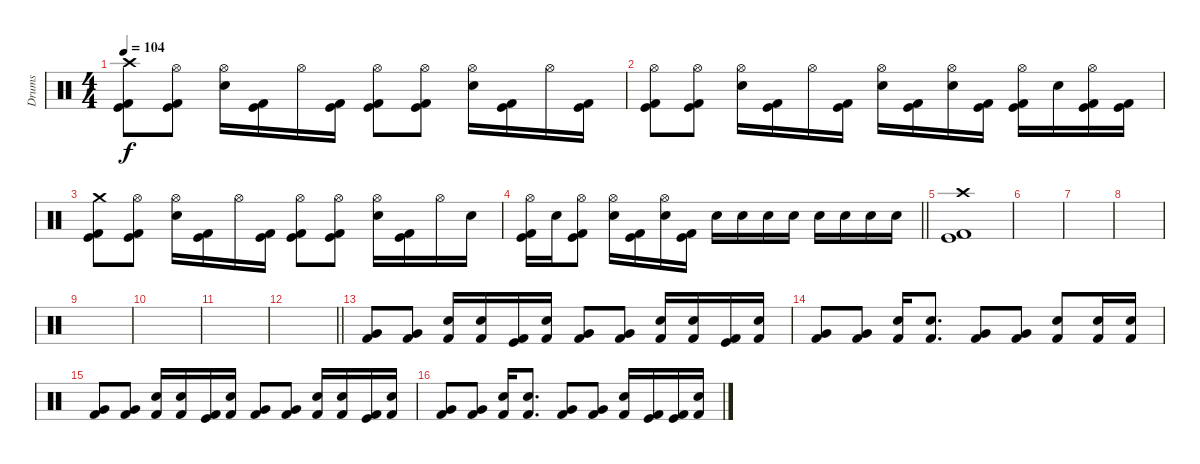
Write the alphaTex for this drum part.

\track ("Drums" "Drums") {instrument percussion}
\staff {score}
\articulation defaults
\ts (4 4)
\tempo 104
\clef neutral
\ks c
("Crash high (hit)" "Kick (hit)" "Kick (hit) 2").8{dy f} ("Hi-Hat (open)" "Kick (hit)" "Kick (hit) 2").8 ("Hi-Hat (open)" "Electric Snare (hit)").16 ("Kick (hit)" "Kick (hit) 2").16 "Hi-Hat (open)".16 ("Kick (hit)" "Kick (hit) 2").16 ("Hi-Hat (open)" "Kick (hit)" "Kick (hit) 2").8 ("Hi-Hat (open)" "Kick (hit)" "Kick (hit) 2").8 ("Hi-Hat (open)" "Electric Snare (hit)").16 ("Kick (hit)" "Kick (hit) 2").16 "Hi-Hat (open)".16 ("Kick (hit)" "Kick (hit) 2").16 |
("Hi-Hat (open)" "Kick (hit)" "Kick (hit) 2").8 ("Hi-Hat (open)" "Kick (hit)" "Kick (hit) 2").8 ("Hi-Hat (open)" "Electric Snare (hit)").16 ("Kick (hit)" "Kick (hit) 2").16 "Hi-Hat (open)".16 ("Kick (hit)" "Kick (hit) 2").16 ("Hi-Hat (open)" "Electric Snare (hit)").16 ("Kick (hit)" "Kick (hit) 2").16 ("Hi-Hat (open)" "Electric Snare (hit)").16 ("Kick (hit)" "Kick (hit) 2").16 ("Hi-Hat (open)" "Kick (hit)" "Kick (hit) 2").16 "Electric Snare (hit)".16 ("Hi-Hat (open)" "Kick (hit)" "Kick (hit) 2").16 ("Kick (hit)" "Kick (hit) 2").16 |
("Crash medium (hit)" "Kick (hit)" "Kick (hit) 2").8 ("Hi-Hat (open)" "Kick (hit)" "Kick (hit) 2").8 ("Hi-Hat (open)" "Electric Snare (hit)").16 ("Kick (hit)" "Kick (hit) 2").16 "Hi-Hat (open)".16 ("Kick (hit)" "Kick (hit) 2").16 ("Hi-Hat (open)" "Kick (hit)" "Kick (hit) 2").8 ("Hi-Hat (open)" "Kick (hit)" "Kick (hit) 2").8 ("Hi-Hat (open)" "Electric Snare (hit)").16 ("Kick (hit)" "Kick (hit) 2").16 "Hi-Hat (open)".16 "Electric Snare (hit)".16 |
\barLineRight lightlight
("Hi-Hat (open)" "Kick (hit)" "Kick (hit) 2").16 "Electric Snare (hit)".16 ("Hi-Hat (open)" "Kick (hit)" "Kick (hit) 2").8 ("Hi-Hat (open)" "Electric Snare (hit)").16 ("Kick (hit)" "Kick (hit) 2").16 ("Hi-Hat (open)" "Electric Snare (hit)").16 ("Kick (hit)" "Kick (hit) 2").16 "Electric Snare (hit)".16 "Electric Snare (hit)".16 "Electric Snare (hit)".16 "Electric Snare (hit)".16 "Electric Snare (hit)".16 "Electric Snare (hit)".16 "Electric Snare (hit)".16 "Electric Snare (hit)".16 |
\section ("" "")
("Crash high (hit)" "Kick (hit)" "Kick (hit) 2").1 |
|
|
|
|
|
|
\barLineRight lightlight
|
("Kick (hit) 2" "Very Low Tom (hit)").8 ("Kick (hit) 2" "Very Low Tom (hit)").8 ("Electric Snare (hit)" "Kick (hit) 2").16 ("Electric Snare (hit)" "Kick (hit) 2").16 ("Kick (hit)" "Kick (hit) 2").16 ("Electric Snare (hit)" "Kick (hit) 2").16 ("Kick (hit) 2" "Very Low Tom (hit)").8 ("Kick (hit) 2" "Very Low Tom (hit)").8 ("Electric Snare (hit)" "Kick (hit) 2").16 ("Electric Snare (hit)" "Kick (hit) 2").16 ("Kick (hit)" "Kick (hit) 2").16 ("Electric Snare (hit)" "Kick (hit) 2").16 |
("Kick (hit) 2" "Very Low Tom (hit)").8 ("Kick (hit) 2" "Very Low Tom (hit)").8 ("Electric Snare (hit)" "Kick (hit) 2").16 ("Electric Snare (hit)" "Kick (hit) 2").8{d} ("Kick (hit) 2" "Very Low Tom (hit)").8 ("Kick (hit) 2" "Very Low Tom (hit)").8 ("Electric Snare (hit)" "Kick (hit) 2").8 ("Electric Snare (hit)" "Kick (hit) 2").16 ("Electric Snare (hit)" "Kick (hit) 2").16 |
("Kick (hit) 2" "Very Low Tom (hit)").8 ("Kick (hit) 2" "Very Low Tom (hit)").8 ("Electric Snare (hit)" "Kick (hit) 2").16 ("Electric Snare (hit)" "Kick (hit) 2").16 ("Kick (hit)" "Kick (hit) 2").16 ("Electric Snare (hit)" "Kick (hit) 2").16 ("Kick (hit) 2" "Very Low Tom (hit)").8 ("Kick (hit) 2" "Very Low Tom (hit)").8 ("Electric Snare (hit)" "Kick (hit) 2").16 ("Electric Snare (hit)" "Kick (hit) 2").16 ("Kick (hit)" "Kick (hit) 2").16 ("Electric Snare (hit)" "Kick (hit) 2").16 |
("Kick (hit) 2" "Very Low Tom (hit)").8 ("Kick (hit) 2" "Very Low Tom (hit)").8 ("Electric Snare (hit)" "Kick (hit) 2").16 ("Electric Snare (hit)" "Kick (hit) 2").8{d} ("Kick (hit) 2" "Very Low Tom (hit)").8 ("Kick (hit) 2" "Very Low Tom (hit)").8 ("Electric Snare (hit)" "Kick (hit) 2").16 ("Kick (hit)" "Kick (hit) 2").16 ("Kick (hit)" "Kick (hit) 2").16 ("Electric Snare (hit)" "Kick (hit) 2").16
